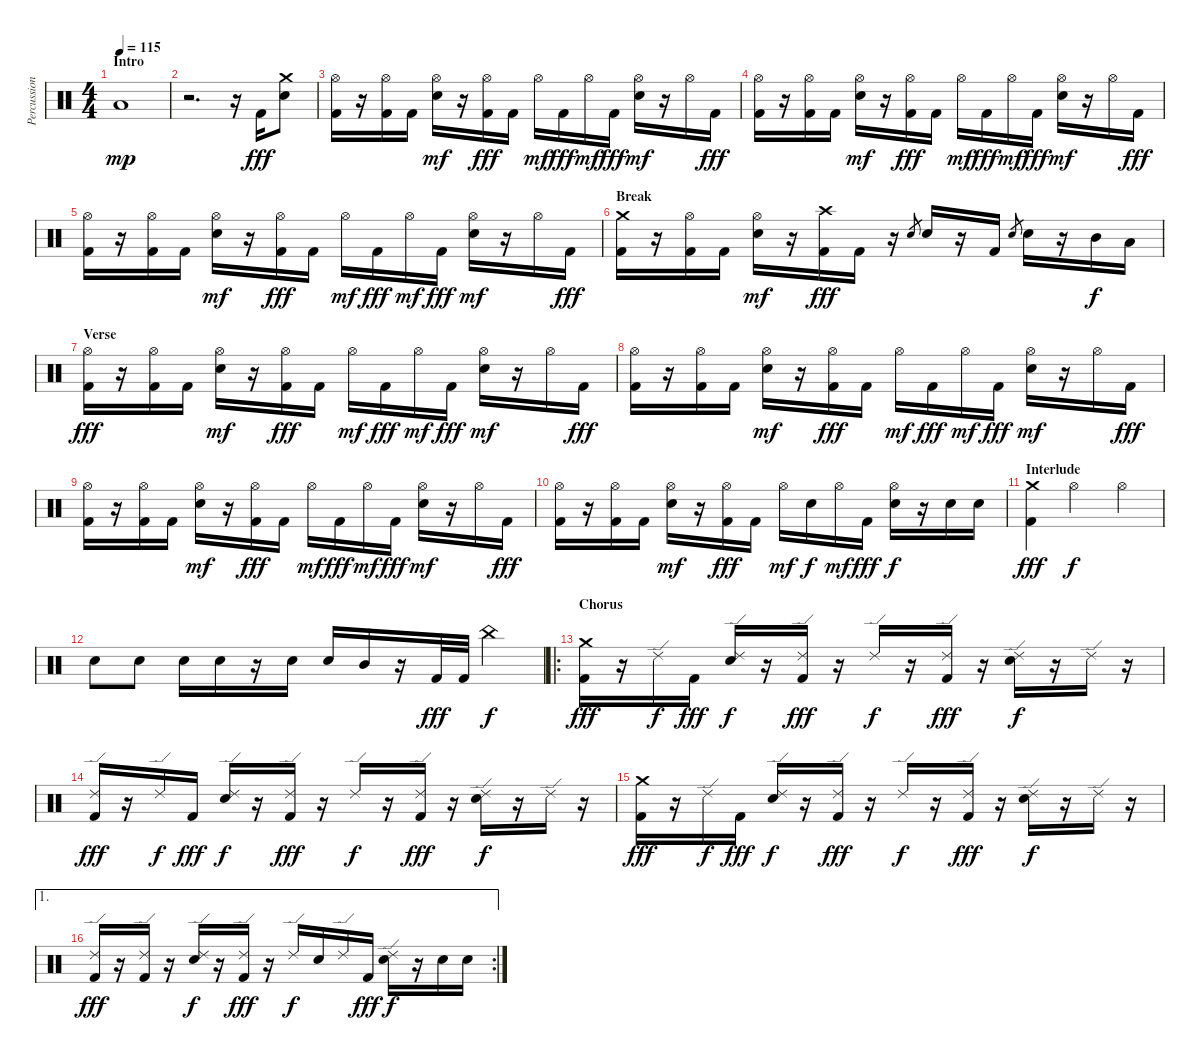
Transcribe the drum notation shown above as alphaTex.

\track ("Percussion" "Percussion") {instrument percussion}
\staff {score}
\articulation defaults
\ts (4 4)
\section ("" "Intro")
\tempo 115
\clef neutral
\ks c "Low Floor Tom (hit)".1{dy mp}
|
r.2{d} r.16 "Kick (hit) 2".16{dy fff} ("Crash medium (hit)" "Electric Snare (hit)").8 |
("Hi-Hat (open)" "Kick (hit) 2").16 r.16 ("Hi-Hat (open)" "Kick (hit) 2").16 "Kick (hit) 2".16 ("Hi-Hat (open)" "Electric Snare (hit)").16{dy mf} r.16 ("Hi-Hat (open)" "Kick (hit) 2").16{dy fff} "Kick (hit) 2".16 "Hi-Hat (open)".16{dy mf} "Kick (hit) 2".16{dy fff} "Hi-Hat (open)".16{dy mf} "Kick (hit) 2".16{dy fff} ("Hi-Hat (open)" "Electric Snare (hit)").16{dy mf} r.16 "Hi-Hat (open)".16 "Kick (hit) 2".16{dy fff} |
("Hi-Hat (open)" "Kick (hit) 2").16 r.16 ("Hi-Hat (open)" "Kick (hit) 2").16 "Kick (hit) 2".16 ("Hi-Hat (open)" "Electric Snare (hit)").16{dy mf} r.16 ("Hi-Hat (open)" "Kick (hit) 2").16{dy fff} "Kick (hit) 2".16 "Hi-Hat (open)".16{dy mf} "Kick (hit) 2".16{dy fff} "Hi-Hat (open)".16{dy mf} "Kick (hit) 2".16{dy fff} ("Hi-Hat (open)" "Electric Snare (hit)").16{dy mf} r.16 "Hi-Hat (open)".16 "Kick (hit) 2".16{dy fff} |
("Hi-Hat (open)" "Kick (hit) 2").16 r.16 ("Hi-Hat (open)" "Kick (hit) 2").16 "Kick (hit) 2".16 ("Hi-Hat (open)" "Electric Snare (hit)").16{dy mf} r.16 ("Hi-Hat (open)" "Kick (hit) 2").16{dy fff} "Kick (hit) 2".16 "Hi-Hat (open)".16{dy mf} "Kick (hit) 2".16{dy fff} "Hi-Hat (open)".16{dy mf} "Kick (hit) 2".16{dy fff} ("Hi-Hat (open)" "Electric Snare (hit)").16{dy mf} r.16 "Hi-Hat (open)".16 "Kick (hit) 2".16{dy fff} |
\section ("" "Break")
("Crash medium (hit)" "Kick (hit) 2").16 r.16 ("Hi-Hat (open)" "Kick (hit) 2").16 "Kick (hit) 2".16 ("Hi-Hat (open)" "Electric Snare (hit)").16{dy mf} r.16 ("Crash high (hit)" "Kick (hit) 2").16{dy fff} "Kick (hit) 2".16 r.16 "Electric Snare (hit)".8{gr} "Electric Snare (hit)".16 r.16 "Kick (hit) 2".16 "Electric Snare (hit)".8{gr} "Electric Snare (hit)".16 r.16 "Mid Tom (hit)".16{dy f} "Low Tom (hit)".16 |
\section ("" "Verse")
("Hi-Hat (open)" "Kick (hit) 2").16{dy fff} r.16 ("Hi-Hat (open)" "Kick (hit) 2").16 "Kick (hit) 2".16 ("Hi-Hat (open)" "Electric Snare (hit)").16{dy mf} r.16 ("Hi-Hat (open)" "Kick (hit) 2").16{dy fff} "Kick (hit) 2".16 "Hi-Hat (open)".16{dy mf} "Kick (hit) 2".16{dy fff} "Hi-Hat (open)".16{dy mf} "Kick (hit) 2".16{dy fff} ("Hi-Hat (open)" "Electric Snare (hit)").16{dy mf} r.16 "Hi-Hat (open)".16 "Kick (hit) 2".16{dy fff} |
("Hi-Hat (open)" "Kick (hit) 2").16 r.16 ("Hi-Hat (open)" "Kick (hit) 2").16 "Kick (hit) 2".16 ("Hi-Hat (open)" "Electric Snare (hit)").16{dy mf} r.16 ("Hi-Hat (open)" "Kick (hit) 2").16{dy fff} "Kick (hit) 2".16 "Hi-Hat (open)".16{dy mf} "Kick (hit) 2".16{dy fff} "Hi-Hat (open)".16{dy mf} "Kick (hit) 2".16{dy fff} ("Hi-Hat (open)" "Electric Snare (hit)").16{dy mf} r.16 "Hi-Hat (open)".16 "Kick (hit) 2".16{dy fff} |
("Hi-Hat (open)" "Kick (hit) 2").16 r.16 ("Hi-Hat (open)" "Kick (hit) 2").16 "Kick (hit) 2".16 ("Hi-Hat (open)" "Electric Snare (hit)").16{dy mf} r.16 ("Hi-Hat (open)" "Kick (hit) 2").16{dy fff} "Kick (hit) 2".16 "Hi-Hat (open)".16{dy mf} "Kick (hit) 2".16{dy fff} "Hi-Hat (open)".16{dy mf} "Kick (hit) 2".16{dy fff} ("Hi-Hat (open)" "Electric Snare (hit)").16{dy mf} r.16 "Hi-Hat (open)".16 "Kick (hit) 2".16{dy fff} |
("Hi-Hat (open)" "Kick (hit) 2").16 r.16 ("Hi-Hat (open)" "Kick (hit) 2").16 "Kick (hit) 2".16 ("Hi-Hat (open)" "Electric Snare (hit)").16{dy mf} r.16 ("Hi-Hat (open)" "Kick (hit) 2").16{dy fff} "Kick (hit) 2".16 "Hi-Hat (open)".16{dy mf} "Electric Snare (hit)".16{dy f} "Hi-Hat (open)".16{dy mf} "Kick (hit) 2".16{dy fff} ("Hi-Hat (open)" "Electric Snare (hit)").16{dy f} r.16 "Electric Snare (hit)".16 "Electric Snare (hit)".16 |
\section ("" "Interlude")
("Crash medium (hit)" "Kick (hit) 2").4{dy fff} "Hi-Hat (open)".2{dy f} "Hi-Hat (open)".4 |
"Electric Snare (hit)".8 "Electric Snare (hit)".8 "Electric Snare (hit)".16 "Electric Snare (hit)".16 r.16 "Electric Snare (hit)".16 "Electric Snare (hit)".16 "Mid Tom (hit)".16 r.16 "Kick (hit) 2".32{dy fff} "Kick (hit) 2".32 "China (hit)".4{dy f} |
\ro
\section ("" "Chorus")
("Crash medium (hit)" "Kick (hit) 2").16{dy fff} r.16 "Ride (edge) 2".16{dy f} "Kick (hit) 2".16{dy fff} ("Ride (edge) 2" "Electric Snare (hit)").16{dy f} r.16 ("Ride (edge) 2" "Kick (hit) 2").16{dy fff} r.16 "Ride (edge) 2".16{dy f} r.16 ("Ride (edge) 2" "Kick (hit) 2").16{dy fff} r.16 ("Ride (edge) 2" "Electric Snare (hit)").16{dy f} r.16 "Ride (edge) 2".16 r.16 |
("Ride (edge) 2" "Kick (hit) 2").16{dy fff} r.16 "Ride (edge) 2".16{dy f} "Kick (hit) 2".16{dy fff} ("Ride (edge) 2" "Electric Snare (hit)").16{dy f} r.16 ("Ride (edge) 2" "Kick (hit) 2").16{dy fff} r.16 "Ride (edge) 2".16{dy f} r.16 ("Ride (edge) 2" "Kick (hit) 2").16{dy fff} r.16 ("Ride (edge) 2" "Electric Snare (hit)").16{dy f} r.16 "Ride (edge) 2".16 r.16 |
("Crash medium (hit)" "Kick (hit) 2").16{dy fff} r.16 "Ride (edge) 2".16{dy f} "Kick (hit) 2".16{dy fff} ("Ride (edge) 2" "Electric Snare (hit)").16{dy f} r.16 ("Ride (edge) 2" "Kick (hit) 2").16{dy fff} r.16 "Ride (edge) 2".16{dy f} r.16 ("Ride (edge) 2" "Kick (hit) 2").16{dy fff} r.16 ("Ride (edge) 2" "Electric Snare (hit)").16{dy f} r.16 "Ride (edge) 2".16 r.16 |
\ae 1
\rc 2
("Ride (edge) 2" "Kick (hit) 2").16{dy fff} r.16 ("Ride (edge) 2" "Kick (hit) 2").16 r.16 ("Ride (edge) 2" "Electric Snare (hit)").16{dy f} r.16 ("Ride (edge) 2" "Kick (hit) 2").16{dy fff} r.16 "Ride (edge) 2".16{dy f} "Electric Snare (hit)".16 "Ride (edge) 2".16 "Kick (hit) 2".16{dy fff} ("Ride (edge) 2" "Electric Snare (hit)").16{dy f} r.16 "Electric Snare (hit)".16 "Electric Snare (hit)".16
